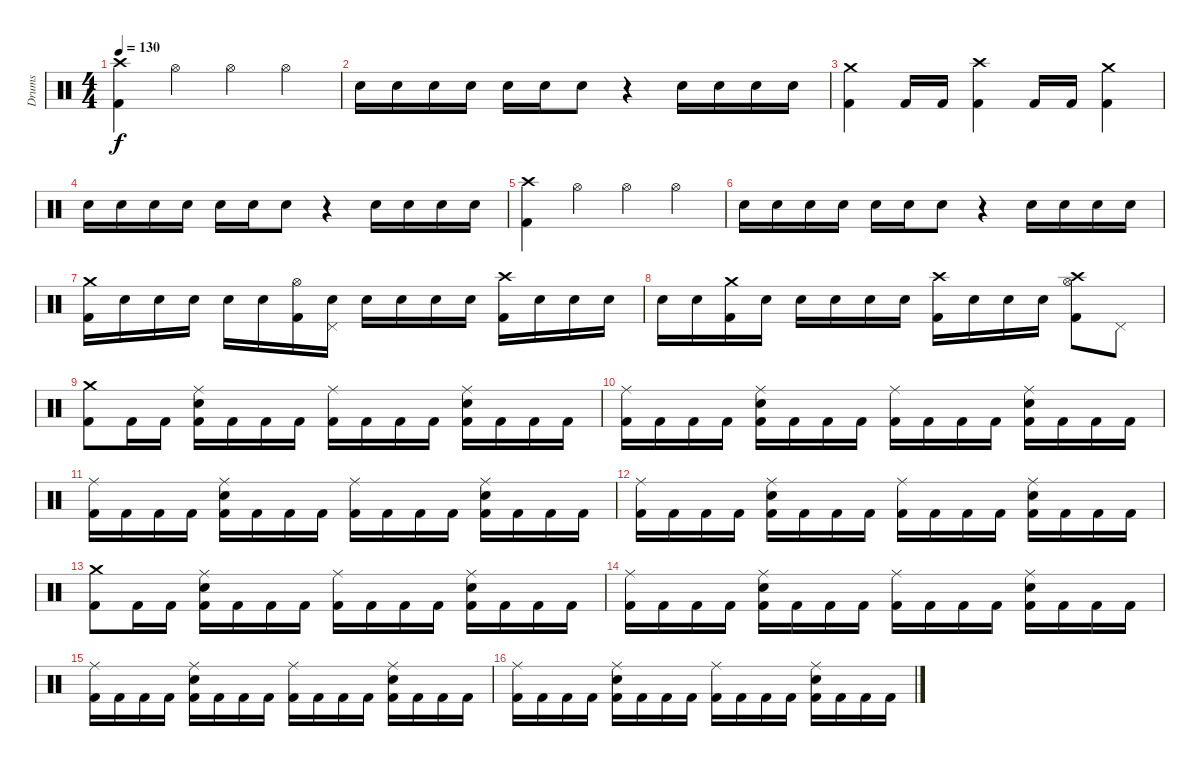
\track ("Drums" "Drums") {instrument percussion}
\staff {score}
\articulation defaults
\ts (4 4)
\tempo 130
\clef neutral
\ks c
("Crash high (hit)" "Kick (hit) 2").4{dy f} "Hi-Hat (open)".4 "Hi-Hat (open)".4 "Hi-Hat (open)".4 |
"Snare (hit) 2".16 "Snare (hit) 2".16 "Snare (hit) 2".16 "Snare (hit) 2".16 "Snare (hit) 2".16 "Snare (hit) 2".16 "Snare (hit) 2".8 r.4 "Snare (hit) 2".16 "Snare (hit) 2".16 "Snare (hit) 2".16 "Snare (hit) 2".16 |
("Crash medium (hit)" "Kick (hit) 2").4 "Kick (hit) 2".16 "Kick (hit) 2".16 ("Crash high (hit)" "Kick (hit) 2").4 "Kick (hit) 2".16 "Kick (hit) 2".16 ("Crash medium (hit)" "Kick (hit) 2").4 |
"Snare (hit) 2".16 "Snare (hit) 2".16 "Snare (hit) 2".16 "Snare (hit) 2".16 "Snare (hit) 2".16 "Snare (hit) 2".16 "Snare (hit) 2".8 r.4 "Snare (hit) 2".16 "Snare (hit) 2".16 "Snare (hit) 2".16 "Snare (hit) 2".16 |
("Crash high (hit)" "Kick (hit) 2").4 "Hi-Hat (open)".4 "Hi-Hat (open)".4 "Hi-Hat (open)".4 |
"Snare (hit) 2".16 "Snare (hit) 2".16 "Snare (hit) 2".16 "Snare (hit) 2".16 "Snare (hit) 2".16 "Snare (hit) 2".16 "Snare (hit) 2".8 r.4 "Snare (hit) 2".16 "Snare (hit) 2".16 "Snare (hit) 2".16 "Snare (hit) 2".16 |
("Crash medium (hit)" "Kick (hit) 2").16 "Snare (hit) 2".16 "Snare (hit) 2".16 "Snare (hit) 2".16 "Snare (hit) 2".16 "Snare (hit) 2".16 ("Hi-Hat (open)" "Kick (hit) 2").16 ("Pedal Hi-Hat (hit)" "Snare (hit) 2").16 "Snare (hit) 2".16 "Snare (hit) 2".16 "Snare (hit) 2".16 "Snare (hit) 2".16 ("Crash high (hit)" "Kick (hit) 2").16 "Snare (hit) 2".16 "Snare (hit) 2".16 "Snare (hit) 2".16 |
"Snare (hit) 2".16 "Snare (hit) 2".16 ("Crash medium (hit)" "Kick (hit) 2").16 "Snare (hit) 2".16 "Snare (hit) 2".16 "Snare (hit) 2".16 "Snare (hit) 2".16 "Snare (hit) 2".16 ("Crash high (hit)" "Kick (hit) 2").16 "Snare (hit) 2".16 "Snare (hit) 2".16 "Snare (hit) 2".16 ("Crash high (hit)" "Hi-Hat (open)" "Kick (hit) 2").8 "Pedal Hi-Hat (hit)".8 |
("Crash medium (hit)" "Kick (hit) 2").8 "Kick (hit) 2".16 "Kick (hit) 2".16 ("Ride (middle)" "Snare (hit) 2" "Kick (hit) 2").16 "Kick (hit) 2".16 "Kick (hit) 2".16 "Kick (hit) 2".16 ("Ride (middle)" "Kick (hit) 2").16 "Kick (hit) 2".16 "Kick (hit) 2".16 "Kick (hit) 2".16 ("Ride (middle)" "Snare (hit) 2" "Kick (hit) 2").16 "Kick (hit) 2".16 "Kick (hit) 2".16 "Kick (hit) 2".16 |
("Ride (middle)" "Kick (hit) 2").16 "Kick (hit) 2".16 "Kick (hit) 2".16 "Kick (hit) 2".16 ("Ride (middle)" "Snare (hit) 2" "Kick (hit) 2").16 "Kick (hit) 2".16 "Kick (hit) 2".16 "Kick (hit) 2".16 ("Ride (middle)" "Kick (hit) 2").16 "Kick (hit) 2".16 "Kick (hit) 2".16 "Kick (hit) 2".16 ("Ride (middle)" "Snare (hit) 2" "Kick (hit) 2").16 "Kick (hit) 2".16 "Kick (hit) 2".16 "Kick (hit) 2".16 |
("Ride (middle)" "Kick (hit) 2").16 "Kick (hit) 2".16 "Kick (hit) 2".16 "Kick (hit) 2".16 ("Ride (middle)" "Snare (hit) 2" "Kick (hit) 2").16 "Kick (hit) 2".16 "Kick (hit) 2".16 "Kick (hit) 2".16 ("Ride (middle)" "Kick (hit) 2").16 "Kick (hit) 2".16 "Kick (hit) 2".16 "Kick (hit) 2".16 ("Ride (middle)" "Snare (hit) 2" "Kick (hit) 2").16 "Kick (hit) 2".16 "Kick (hit) 2".16 "Kick (hit) 2".16 |
("Ride (middle)" "Kick (hit) 2").16 "Kick (hit) 2".16 "Kick (hit) 2".16 "Kick (hit) 2".16 ("Ride (middle)" "Snare (hit) 2" "Kick (hit) 2").16 "Kick (hit) 2".16 "Kick (hit) 2".16 "Kick (hit) 2".16 ("Ride (middle)" "Kick (hit) 2").16 "Kick (hit) 2".16 "Kick (hit) 2".16 "Kick (hit) 2".16 ("Ride (middle)" "Snare (hit) 2" "Kick (hit) 2").16 "Kick (hit) 2".16 "Kick (hit) 2".16 "Kick (hit) 2".16 |
("Crash medium (hit)" "Kick (hit) 2").8 "Kick (hit) 2".16 "Kick (hit) 2".16 ("Ride (middle)" "Snare (hit) 2" "Kick (hit) 2").16 "Kick (hit) 2".16 "Kick (hit) 2".16 "Kick (hit) 2".16 ("Ride (middle)" "Kick (hit) 2").16 "Kick (hit) 2".16 "Kick (hit) 2".16 "Kick (hit) 2".16 ("Ride (middle)" "Snare (hit) 2" "Kick (hit) 2").16 "Kick (hit) 2".16 "Kick (hit) 2".16 "Kick (hit) 2".16 |
("Ride (middle)" "Kick (hit) 2").16 "Kick (hit) 2".16 "Kick (hit) 2".16 "Kick (hit) 2".16 ("Ride (middle)" "Snare (hit) 2" "Kick (hit) 2").16 "Kick (hit) 2".16 "Kick (hit) 2".16 "Kick (hit) 2".16 ("Ride (middle)" "Kick (hit) 2").16 "Kick (hit) 2".16 "Kick (hit) 2".16 "Kick (hit) 2".16 ("Ride (middle)" "Snare (hit) 2" "Kick (hit) 2").16 "Kick (hit) 2".16 "Kick (hit) 2".16 "Kick (hit) 2".16 |
("Ride (middle)" "Kick (hit) 2").16 "Kick (hit) 2".16 "Kick (hit) 2".16 "Kick (hit) 2".16 ("Ride (middle)" "Snare (hit) 2" "Kick (hit) 2").16 "Kick (hit) 2".16 "Kick (hit) 2".16 "Kick (hit) 2".16 ("Ride (middle)" "Kick (hit) 2").16 "Kick (hit) 2".16 "Kick (hit) 2".16 "Kick (hit) 2".16 ("Ride (middle)" "Snare (hit) 2" "Kick (hit) 2").16 "Kick (hit) 2".16 "Kick (hit) 2".16 "Kick (hit) 2".16 |
("Ride (middle)" "Kick (hit) 2").16 "Kick (hit) 2".16 "Kick (hit) 2".16 "Kick (hit) 2".16 ("Ride (middle)" "Snare (hit) 2" "Kick (hit) 2").16 "Kick (hit) 2".16 "Kick (hit) 2".16 "Kick (hit) 2".16 ("Ride (middle)" "Kick (hit) 2").16 "Kick (hit) 2".16 "Kick (hit) 2".16 "Kick (hit) 2".16 ("Ride (middle)" "Snare (hit) 2" "Kick (hit) 2").16 "Kick (hit) 2".16 "Kick (hit) 2".16 "Kick (hit) 2".16
